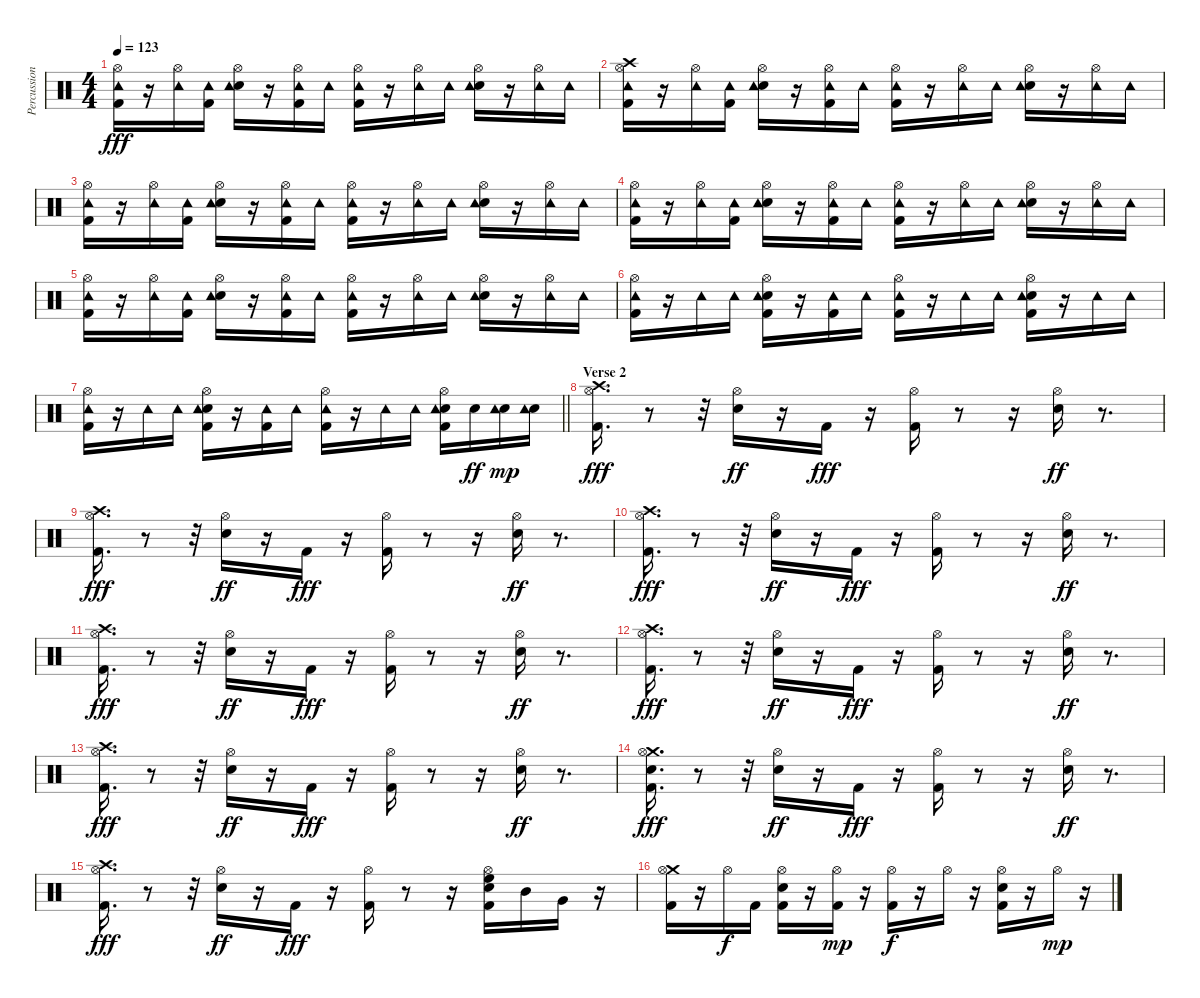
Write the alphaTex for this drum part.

\track ("Percussion: Liberty D'Vitto" "Percussion") {instrument percussion}
\staff {score}
\articulation defaults
\ts (4 4)
\tempo 123
\clef neutral
\ks c
("Hi-Hat (open)" "Tambourine (hit)" "Kick (hit) 2").16{dy fff} r.16 ("Hi-Hat (open)" "Tambourine (hit)").16 ("Tambourine (hit)" "Kick (hit) 2").16 ("Hi-Hat (open)" "Snare (hit) 2" "Tambourine (hit)").16 r.16 ("Hi-Hat (open)" "Tambourine (hit)" "Kick (hit) 2").16 "Tambourine (hit)".16 ("Hi-Hat (open)" "Tambourine (hit)" "Kick (hit) 2").16 r.16 ("Hi-Hat (open)" "Tambourine (hit)").16 "Tambourine (hit)".16 ("Hi-Hat (open)" "Snare (hit) 2" "Tambourine (hit)").16 r.16 ("Hi-Hat (open)" "Tambourine (hit)").16 "Tambourine (hit)".16 |
("Crash high (hit)" "Hi-Hat (open)" "Tambourine (hit)" "Kick (hit) 2").16 r.16 ("Hi-Hat (open)" "Tambourine (hit)").16 ("Tambourine (hit)" "Kick (hit) 2").16 ("Hi-Hat (open)" "Snare (hit) 2" "Tambourine (hit)").16 r.16 ("Hi-Hat (open)" "Tambourine (hit)" "Kick (hit) 2").16 "Tambourine (hit)".16 ("Hi-Hat (open)" "Tambourine (hit)" "Kick (hit) 2").16 r.16 ("Hi-Hat (open)" "Tambourine (hit)").16 "Tambourine (hit)".16 ("Hi-Hat (open)" "Snare (hit) 2" "Tambourine (hit)").16 r.16 ("Hi-Hat (open)" "Tambourine (hit)").16 "Tambourine (hit)".16 |
("Hi-Hat (open)" "Tambourine (hit)" "Kick (hit) 2").16 r.16 ("Hi-Hat (open)" "Tambourine (hit)").16 ("Tambourine (hit)" "Kick (hit) 2").16 ("Hi-Hat (open)" "Snare (hit) 2" "Tambourine (hit)").16 r.16 ("Hi-Hat (open)" "Tambourine (hit)" "Kick (hit) 2").16 "Tambourine (hit)".16 ("Hi-Hat (open)" "Tambourine (hit)" "Kick (hit) 2").16 r.16 ("Hi-Hat (open)" "Tambourine (hit)").16 "Tambourine (hit)".16 ("Hi-Hat (open)" "Snare (hit) 2" "Tambourine (hit)").16 r.16 ("Hi-Hat (open)" "Tambourine (hit)").16 "Tambourine (hit)".16 |
("Hi-Hat (open)" "Tambourine (hit)" "Kick (hit) 2").16 r.16 ("Hi-Hat (open)" "Tambourine (hit)").16 ("Tambourine (hit)" "Kick (hit) 2").16 ("Hi-Hat (open)" "Snare (hit) 2" "Tambourine (hit)").16 r.16 ("Hi-Hat (open)" "Tambourine (hit)" "Kick (hit) 2").16 "Tambourine (hit)".16 ("Hi-Hat (open)" "Tambourine (hit)" "Kick (hit) 2").16 r.16 ("Hi-Hat (open)" "Tambourine (hit)").16 "Tambourine (hit)".16 ("Hi-Hat (open)" "Snare (hit) 2" "Tambourine (hit)").16 r.16 ("Hi-Hat (open)" "Tambourine (hit)").16 "Tambourine (hit)".16 |
("Hi-Hat (open)" "Tambourine (hit)" "Kick (hit) 2").16 r.16 ("Hi-Hat (open)" "Tambourine (hit)").16 ("Tambourine (hit)" "Kick (hit) 2").16 ("Hi-Hat (open)" "Snare (hit) 2" "Tambourine (hit)").16 r.16 ("Hi-Hat (open)" "Tambourine (hit)" "Kick (hit) 2").16 "Tambourine (hit)".16 ("Hi-Hat (open)" "Tambourine (hit)" "Kick (hit) 2").16 r.16 ("Hi-Hat (open)" "Tambourine (hit)").16 "Tambourine (hit)".16 ("Hi-Hat (open)" "Snare (hit) 2" "Tambourine (hit)").16 r.16 ("Hi-Hat (open)" "Tambourine (hit)").16 "Tambourine (hit)".16 |
("Hi-Hat (open)" "Tambourine (hit)" "Kick (hit) 2").16 r.16 "Tambourine (hit)".16 "Tambourine (hit)".16 ("Hi-Hat (open)" "Snare (hit) 2" "Tambourine (hit)" "Kick (hit) 2").16 r.16 ("Tambourine (hit)" "Kick (hit) 2").16 "Tambourine (hit)".16 ("Hi-Hat (open)" "Tambourine (hit)" "Kick (hit) 2").16 r.16 "Tambourine (hit)".16 "Tambourine (hit)".16 ("Hi-Hat (open)" "Snare (hit) 2" "Tambourine (hit)" "Kick (hit) 2").16 r.16 "Tambourine (hit)".16 "Tambourine (hit)".16 |
\barLineRight lightlight
("Hi-Hat (open)" "Tambourine (hit)" "Kick (hit) 2").16 r.16 "Tambourine (hit)".16 "Tambourine (hit)".16 ("Hi-Hat (open)" "Snare (hit) 2" "Tambourine (hit)" "Kick (hit) 2").16 r.16 ("Tambourine (hit)" "Kick (hit) 2").16 "Tambourine (hit)".16 ("Hi-Hat (open)" "Tambourine (hit)" "Kick (hit) 2").16 r.16 "Tambourine (hit)".16 "Tambourine (hit)".16 ("Hi-Hat (open)" "Snare (hit) 2" "Tambourine (hit)" "Kick (hit) 2").16 "Snare (hit) 2".16{dy ff} ("Snare (hit) 2" "Tambourine (hit)").16{dy mp} ("Snare (hit) 2" "Tambourine (hit)").16 |
\section ("" "Verse 2")
("Kick (hit) 2" "Hi-Hat (open)" "Crash high (hit)").16{d dy fff} r.8 r.32 ("Snare (hit) 2" "Hi-Hat (open)").16{dy ff} r.16 "Kick (hit) 2".16{dy fff} r.16 ("Kick (hit) 2" "Hi-Hat (open)").16 r.8 r.16 ("Snare (hit) 2" "Hi-Hat (open)").16{dy ff} r.8{d} |
("Kick (hit) 2" "Hi-Hat (open)" "Crash high (hit)").16{d dy fff} r.8 r.32 ("Snare (hit) 2" "Hi-Hat (open)").16{dy ff} r.16 "Kick (hit) 2".16{dy fff} r.16 ("Kick (hit) 2" "Hi-Hat (open)").16 r.8 r.16 ("Snare (hit) 2" "Hi-Hat (open)").16{dy ff} r.8{d} |
("Kick (hit) 2" "Hi-Hat (open)" "Crash high (hit)").16{d dy fff} r.8 r.32 ("Snare (hit) 2" "Hi-Hat (open)").16{dy ff} r.16 "Kick (hit) 2".16{dy fff} r.16 ("Kick (hit) 2" "Hi-Hat (open)").16 r.8 r.16 ("Snare (hit) 2" "Hi-Hat (open)").16{dy ff} r.8{d} |
("Kick (hit) 2" "Hi-Hat (open)" "Crash high (hit)").16{d dy fff} r.8 r.32 ("Snare (hit) 2" "Hi-Hat (open)").16{dy ff} r.16 "Kick (hit) 2".16{dy fff} r.16 ("Kick (hit) 2" "Hi-Hat (open)").16 r.8 r.16 ("Snare (hit) 2" "Hi-Hat (open)").16{dy ff} r.8{d} |
("Kick (hit) 2" "Hi-Hat (open)" "Crash high (hit)").16{d dy fff} r.8 r.32 ("Snare (hit) 2" "Hi-Hat (open)").16{dy ff} r.16 "Kick (hit) 2".16{dy fff} r.16 ("Kick (hit) 2" "Hi-Hat (open)").16 r.8 r.16 ("Snare (hit) 2" "Hi-Hat (open)").16{dy ff} r.8{d} |
("Kick (hit) 2" "Hi-Hat (open)" "Crash high (hit)").16{d dy fff} r.8 r.32 ("Snare (hit) 2" "Hi-Hat (open)").16{dy ff} r.16 "Kick (hit) 2".16{dy fff} r.16 ("Kick (hit) 2" "Hi-Hat (open)").16 r.8 r.16 ("Snare (hit) 2" "Hi-Hat (open)").16{dy ff} r.8{d} |
("Crash medium (hit)" "Hi-Hat (open)" "Snare (hit) 2" "Kick (hit) 2").16{d dy fff} r.8 r.32 ("Snare (hit) 2" "Hi-Hat (open)").16{dy ff} r.16 "Kick (hit) 2".16{dy fff} r.16 ("Kick (hit) 2" "Hi-Hat (open)").16 r.8 r.16 ("Snare (hit) 2" "Hi-Hat (open)").16{dy ff} r.8{d} |
("Kick (hit) 2" "Hi-Hat (open)" "Crash high (hit)").16{d dy fff} r.8 r.32 ("Snare (hit) 2" "Hi-Hat (open)").16{dy ff} r.16 "Kick (hit) 2".16{dy fff} r.16 ("Kick (hit) 2" "Hi-Hat (open)").16 r.8 r.16 ("Hi-Hat (open)" "Snare (hit) 2" "High Floor Tom (hit)" "Kick (hit) 2").16 "Mid Tom (hit)".16 "Very Low Tom (hit)".16 r.16 |
("Crash medium (hit)" "Hi-Hat (open)" "Kick (hit) 2").16 r.16 "Hi-Hat (open)".16{dy f} "Kick (hit) 2".16 ("Hi-Hat (open)" "Snare (hit) 2" "Kick (hit) 2").16 r.16 ("Hi-Hat (open)" "Kick (hit) 2").16{dy mp} r.16 ("Hi-Hat (open)" "Kick (hit) 2").16{dy f} r.16 "Hi-Hat (open)".16 r.16 ("Hi-Hat (open)" "Snare (hit) 2" "Kick (hit) 2").16 r.16 "Hi-Hat (open)".16{dy mp} r.16
